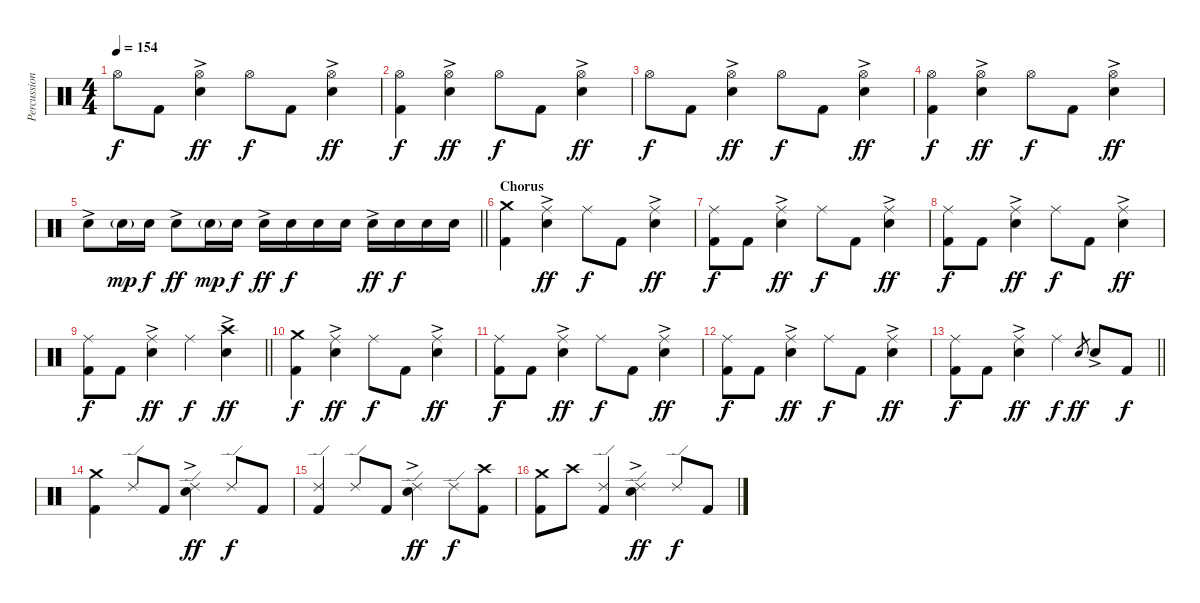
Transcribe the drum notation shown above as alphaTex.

\track ("Percussion" "Percussion") {instrument percussion}
\staff {score}
\articulation defaults
\ts (4 4)
\tempo 154
\clef neutral
\ks c "Hi-Hat (open)".8{dy f} "Kick (hit) 2".8
("Hi-Hat (open)" "Electric Snare (hit)"{ac}).4{dy ff} "Hi-Hat (open)".8{dy f} "Kick (hit) 2".8 ("Hi-Hat (open)" "Electric Snare (hit)"{ac}).4{dy ff} |
("Hi-Hat (open)" "Kick (hit) 2").4{dy f} ("Hi-Hat (open)" "Electric Snare (hit)"{ac}).4{dy ff} "Hi-Hat (open)".8{dy f} "Kick (hit) 2".8 ("Hi-Hat (open)" "Electric Snare (hit)"{ac}).4{dy ff} |
"Hi-Hat (open)".8{dy f} "Kick (hit) 2".8 ("Hi-Hat (open)" "Electric Snare (hit)"{ac}).4{dy ff} "Hi-Hat (open)".8{dy f} "Kick (hit) 2".8 ("Hi-Hat (open)" "Electric Snare (hit)"{ac}).4{dy ff} |
("Hi-Hat (open)" "Kick (hit) 2").4{dy f} ("Hi-Hat (open)" "Electric Snare (hit)"{ac}).4{dy ff} "Hi-Hat (open)".8{dy f} "Kick (hit) 2".8 ("Hi-Hat (open)" "Electric Snare (hit)"{ac}).4{dy ff} |
\barLineRight lightlight "Electric Snare (hit)"{ac}.8 "Electric Snare (hit)"{g}.16{dy mp} "Electric Snare (hit)".16{dy f} "Electric Snare (hit)"{ac}.8{dy ff} "Electric Snare (hit)"{g}.16{dy mp} "Electric Snare (hit)".16{dy f} "Electric Snare (hit)"{ac}.16{dy ff} "Electric Snare (hit)".16{dy f} "Electric Snare (hit)".16 "Electric Snare (hit)".16 "Electric Snare (hit)"{ac}.16{dy ff} "Electric Snare (hit)".16{dy f} "Electric Snare (hit)".16 "Electric Snare (hit)".16
|
\section ("" "Chorus")
("Crash medium (hit)" "Kick (hit) 2").4 ("Ride (middle)" "Electric Snare (hit)"{ac}).4{dy ff} "Ride (middle)".8{dy f} "Kick (hit) 2".8 ("Ride (middle)" "Electric Snare (hit)"{ac}).4{dy ff} |
("Ride (middle)" "Kick (hit) 2").8{dy f} "Kick (hit) 2".8 ("Ride (middle)" "Electric Snare (hit)"{ac}).4{dy ff} "Ride (middle)".8{dy f} "Kick (hit) 2".8 ("Ride (middle)" "Electric Snare (hit)"{ac}).4{dy ff} |
("Ride (middle)" "Kick (hit) 2").8{dy f} "Kick (hit) 2".8 ("Ride (middle)" "Electric Snare (hit)"{ac}).4{dy ff} "Ride (middle)".8{dy f} "Kick (hit) 2".8 ("Ride (middle)" "Electric Snare (hit)"{ac}).4{dy ff} |
\barLineRight lightlight
("Ride (middle)" "Kick (hit) 2").8{dy f} "Kick (hit) 2".8 ("Ride (middle)" "Electric Snare (hit)"{ac}).4{dy ff} "Ride (middle)".4{dy f} ("Crash high (hit)" "Electric Snare (hit)"{ac}).4{dy ff} |
("Crash medium (hit)" "Kick (hit) 2").4{dy f} ("Ride (middle)" "Electric Snare (hit)"{ac}).4{dy ff} "Ride (middle)".8{dy f} "Kick (hit) 2".8 ("Ride (middle)" "Electric Snare (hit)"{ac}).4{dy ff} |
("Ride (middle)" "Kick (hit) 2").8{dy f} "Kick (hit) 2".8 ("Ride (middle)" "Electric Snare (hit)"{ac}).4{dy ff} "Ride (middle)".8{dy f} "Kick (hit) 2".8 ("Ride (middle)" "Electric Snare (hit)"{ac}).4{dy ff} |
("Ride (middle)" "Kick (hit) 2").8{dy f} "Kick (hit) 2".8 ("Ride (middle)" "Electric Snare (hit)"{ac}).4{dy ff} "Ride (middle)".8{dy f} "Kick (hit) 2".8 ("Ride (middle)" "Electric Snare (hit)"{ac}).4{dy ff} |
\barLineRight lightlight
("Ride (middle)" "Kick (hit) 2").8{dy f} "Kick (hit) 2".8 ("Ride (middle)" "Electric Snare (hit)"{ac}).4{dy ff} "Ride (middle)".4{dy f} "Electric Snare (hit)".8{gr dy ff} "Electric Snare (hit)"{ac}.8 "Kick (hit) 2".8{dy f} |
("Crash medium (hit)" "Kick (hit) 2").4 "Ride (edge) 2".8 "Kick (hit) 2".8 ("Ride (edge) 2" "Electric Snare (hit)"{ac}).4{dy ff} "Ride (edge) 2".8{dy f} "Kick (hit) 2".8 |
("Ride (edge) 2" "Kick (hit) 2").4 "Ride (edge) 2".8 "Kick (hit) 2".8 ("Ride (edge) 2" "Electric Snare (hit)"{ac}).4{dy ff} "Ride (edge) 2".8{dy f} ("Crash high (hit)" "Kick (hit) 2").8 |
("Crash medium (hit)" "Kick (hit) 2").8 "Crash high (hit)".8 ("Ride (edge) 2" "Kick (hit) 2").4 ("Ride (edge) 2" "Electric Snare (hit)"{ac}).4{dy ff} "Ride (edge) 2".8{dy f} "Kick (hit) 2".8
